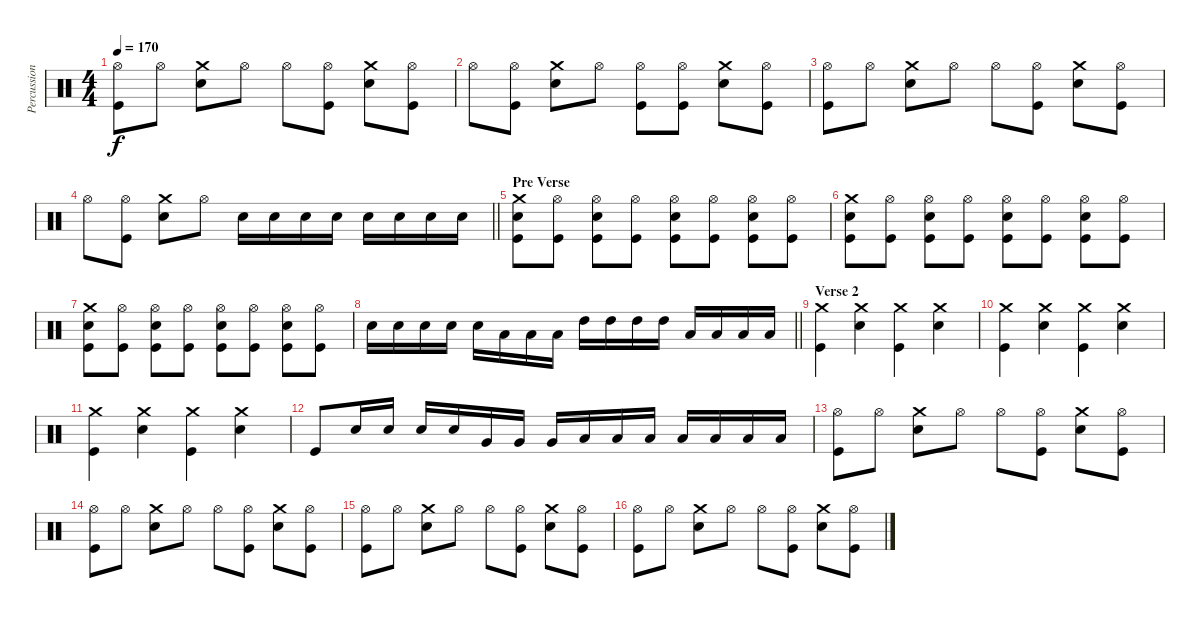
\track ("Percussion" "Percussion") {instrument percussion}
\staff {score}
\articulation defaults
\ts (4 4)
\tempo 170
\clef neutral
\ks c
("Hi-Hat (open)" "Kick (hit)").8{dy f} "Hi-Hat (open)".8 ("Crash medium (hit)" "Snare (hit) 2").8 "Hi-Hat (open)".8 "Hi-Hat (open)".8 ("Hi-Hat (open)" "Kick (hit)").8 ("Crash medium (hit)" "Snare (hit) 2").8 ("Hi-Hat (open)" "Kick (hit)").8 |
"Hi-Hat (open)".8 ("Hi-Hat (open)" "Kick (hit)").8 ("Crash medium (hit)" "Snare (hit) 2").8 "Hi-Hat (open)".8 ("Hi-Hat (open)" "Kick (hit)").8 ("Hi-Hat (open)" "Kick (hit)").8 ("Crash medium (hit)" "Snare (hit) 2").8 ("Hi-Hat (open)" "Kick (hit)").8 |
("Hi-Hat (open)" "Kick (hit)").8 "Hi-Hat (open)".8 ("Crash medium (hit)" "Snare (hit) 2").8 "Hi-Hat (open)".8 "Hi-Hat (open)".8 ("Hi-Hat (open)" "Kick (hit)").8 ("Crash medium (hit)" "Snare (hit) 2").8 ("Hi-Hat (open)" "Kick (hit)").8 |
\barLineRight lightlight "Hi-Hat (open)".8
("Hi-Hat (open)" "Kick (hit)").8 ("Crash medium (hit)" "Snare (hit) 2").8 "Hi-Hat (open)".8 "Snare (hit) 2".16 "Snare (hit) 2".16 "Snare (hit) 2".16 "Snare (hit) 2".16 "Snare (hit) 2".16 "Snare (hit) 2".16 "Snare (hit) 2".16 "Snare (hit) 2".16 |
\section ("" "Pre Verse")
("Crash medium (hit)" "Snare (hit) 2" "Kick (hit)").8 ("Hi-Hat (open)" "Kick (hit)").8 ("Hi-Hat (open)" "Snare (hit) 2" "Kick (hit)").8 ("Hi-Hat (open)" "Kick (hit)").8 ("Hi-Hat (open)" "Snare (hit) 2" "Kick (hit)").8 ("Hi-Hat (open)" "Kick (hit)").8 ("Hi-Hat (open)" "Snare (hit) 2" "Kick (hit)").8 ("Hi-Hat (open)" "Kick (hit)").8 |
("Crash medium (hit)" "Snare (hit) 2" "Kick (hit)").8 ("Hi-Hat (open)" "Kick (hit)").8 ("Hi-Hat (open)" "Snare (hit) 2" "Kick (hit)").8 ("Hi-Hat (open)" "Kick (hit)").8 ("Hi-Hat (open)" "Snare (hit) 2" "Kick (hit)").8 ("Hi-Hat (open)" "Kick (hit)").8 ("Hi-Hat (open)" "Snare (hit) 2" "Kick (hit)").8 ("Hi-Hat (open)" "Kick (hit)").8 |
("Crash medium (hit)" "Snare (hit) 2" "Kick (hit)").8 ("Hi-Hat (open)" "Kick (hit)").8 ("Hi-Hat (open)" "Snare (hit) 2" "Kick (hit)").8 ("Hi-Hat (open)" "Kick (hit)").8 ("Hi-Hat (open)" "Snare (hit) 2" "Kick (hit)").8 ("Hi-Hat (open)" "Kick (hit)").8 ("Hi-Hat (open)" "Snare (hit) 2" "Kick (hit)").8 ("Hi-Hat (open)" "Kick (hit)").8 |
\barLineRight lightlight "Snare (hit) 2".16 "Snare (hit) 2".16 "Snare (hit) 2".16 "Snare (hit) 2".16 "Snare (hit) 2".16 "Low Tom (hit)".16 "Low Tom (hit)".16 "Low Tom (hit)".16 "High Tom (hit)".16 "High Tom (hit)".16 "High Tom (hit)".16 "High Tom (hit)".16 "Low Floor Tom (hit)".16 "Low Floor Tom (hit)".16 "Low Floor Tom (hit)".16 "Low Floor Tom (hit)".16
|
\section ("" "Verse 2")
("Crash medium (hit)" "Kick (hit)").4 ("Crash medium (hit)" "Snare (hit) 2").4 ("Crash medium (hit)" "Kick (hit)").4 ("Crash medium (hit)" "Snare (hit) 2").4 |
("Crash medium (hit)" "Kick (hit)").4 ("Crash medium (hit)" "Snare (hit) 2").4 ("Crash medium (hit)" "Kick (hit)").4 ("Crash medium (hit)" "Snare (hit) 2").4 |
("Crash medium (hit)" "Kick (hit)").4 ("Crash medium (hit)" "Snare (hit) 2").4 ("Crash medium (hit)" "Kick (hit)").4 ("Crash medium (hit)" "Snare (hit) 2").4 |
"Kick (hit)".8 "Snare (hit) 2".16 "Snare (hit) 2".16 "Snare (hit) 2".16 "Snare (hit) 2".16 "Very Low Tom (hit)".16 "Very Low Tom (hit)".16 "Very Low Tom (hit)".16 "Low Floor Tom (hit)".16 "Low Floor Tom (hit)".16 "Low Floor Tom (hit)".16 "Low Tom (hit)".16 "Low Tom (hit)".16 "Low Tom (hit)".16 "Low Tom (hit)".16 |
("Hi-Hat (open)" "Kick (hit)").8 "Hi-Hat (open)".8 ("Crash medium (hit)" "Snare (hit) 2").8 "Hi-Hat (open)".8 "Hi-Hat (open)".8 ("Hi-Hat (open)" "Kick (hit)").8 ("Crash medium (hit)" "Snare (hit) 2").8 ("Hi-Hat (open)" "Kick (hit)").8 |
("Hi-Hat (open)" "Kick (hit)").8 "Hi-Hat (open)".8 ("Crash medium (hit)" "Snare (hit) 2").8 "Hi-Hat (open)".8 "Hi-Hat (open)".8 ("Hi-Hat (open)" "Kick (hit)").8 ("Crash medium (hit)" "Snare (hit) 2").8 ("Hi-Hat (open)" "Kick (hit)").8 |
("Hi-Hat (open)" "Kick (hit)").8 "Hi-Hat (open)".8 ("Crash medium (hit)" "Snare (hit) 2").8 "Hi-Hat (open)".8 "Hi-Hat (open)".8 ("Hi-Hat (open)" "Kick (hit)").8 ("Crash medium (hit)" "Snare (hit) 2").8 ("Hi-Hat (open)" "Kick (hit)").8 |
("Hi-Hat (open)" "Kick (hit)").8 "Hi-Hat (open)".8 ("Crash medium (hit)" "Snare (hit) 2").8 "Hi-Hat (open)".8 "Hi-Hat (open)".8 ("Hi-Hat (open)" "Kick (hit)").8 ("Crash medium (hit)" "Snare (hit) 2").8 ("Hi-Hat (open)" "Kick (hit)").8
